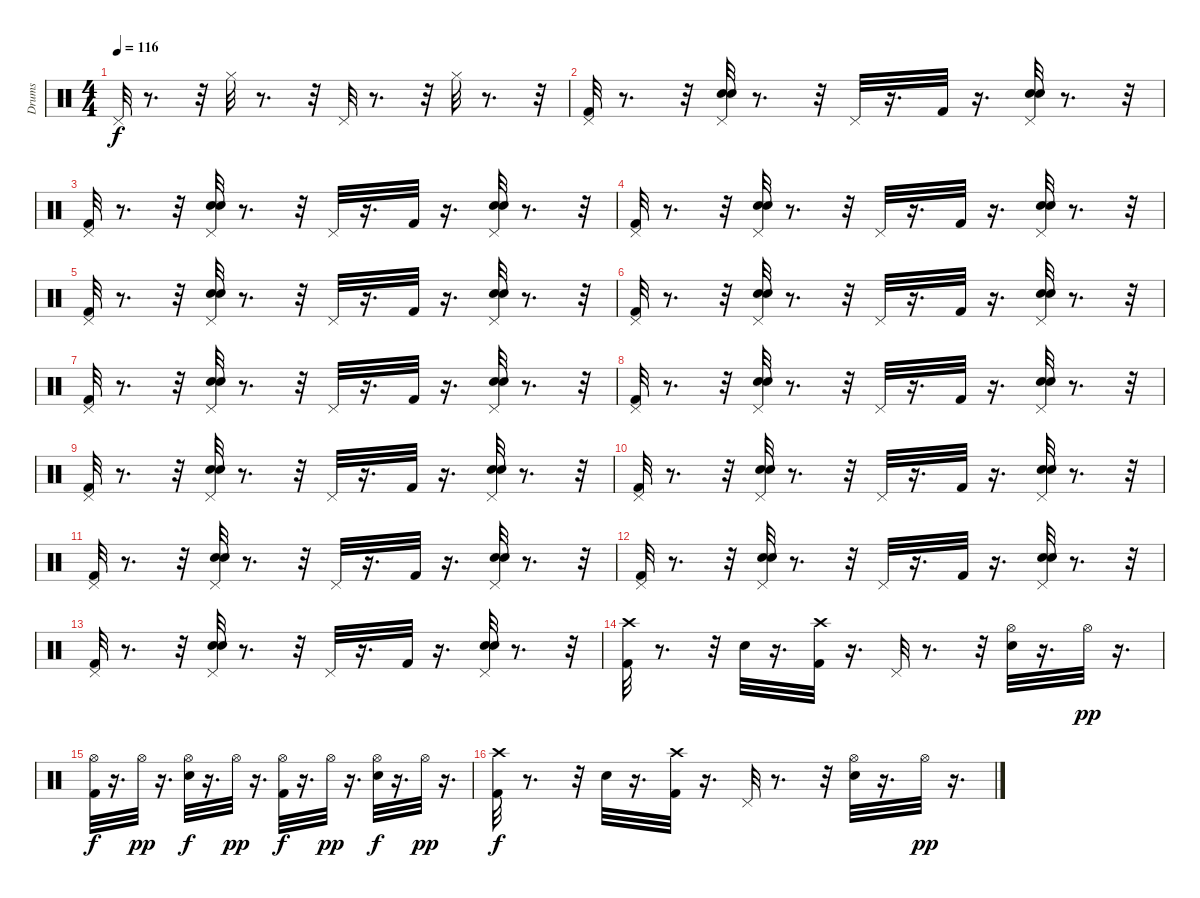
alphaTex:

\track ("Drums" "Drums") {instrument percussion}
\staff {score}
\articulation defaults
\ts (4 4)
\tempo 116
\clef neutral
\ks c "Pedal Hi-Hat (hit)".32{dy f}
r.8{d} r.32 "Hi-Hat (closed)".32 r.8{d} r.32 "Pedal Hi-Hat (hit)".32 r.8{d} r.32 "Hi-Hat (closed)".32 r.8{d} r.32 |
("Pedal Hi-Hat (hit)" "Kick (hit) 2").32 r.8{d} r.32 ("Pedal Hi-Hat (hit)" "Electric Snare (hit)" "Snare (hit) 2").32 r.8{d} r.32 "Pedal Hi-Hat (hit)".32 r.16{d} "Kick (hit) 2".32 r.16{d} ("Pedal Hi-Hat (hit)" "Electric Snare (hit)" "Snare (hit) 2").32 r.8{d} r.32 |
("Pedal Hi-Hat (hit)" "Kick (hit) 2").32 r.8{d} r.32 ("Pedal Hi-Hat (hit)" "Electric Snare (hit)" "Snare (hit) 2").32 r.8{d} r.32 "Pedal Hi-Hat (hit)".32 r.16{d} "Kick (hit) 2".32 r.16{d} ("Pedal Hi-Hat (hit)" "Electric Snare (hit)" "Snare (hit) 2").32 r.8{d} r.32 |
("Pedal Hi-Hat (hit)" "Kick (hit) 2").32 r.8{d} r.32 ("Pedal Hi-Hat (hit)" "Electric Snare (hit)" "Snare (hit) 2").32 r.8{d} r.32 "Pedal Hi-Hat (hit)".32 r.16{d} "Kick (hit) 2".32 r.16{d} ("Pedal Hi-Hat (hit)" "Electric Snare (hit)" "Snare (hit) 2").32 r.8{d} r.32 |
("Pedal Hi-Hat (hit)" "Kick (hit) 2").32 r.8{d} r.32 ("Pedal Hi-Hat (hit)" "Electric Snare (hit)" "Snare (hit) 2").32 r.8{d} r.32 "Pedal Hi-Hat (hit)".32 r.16{d} "Kick (hit) 2".32 r.16{d} ("Pedal Hi-Hat (hit)" "Electric Snare (hit)" "Snare (hit) 2").32 r.8{d} r.32 |
("Pedal Hi-Hat (hit)" "Kick (hit) 2").32 r.8{d} r.32 ("Pedal Hi-Hat (hit)" "Electric Snare (hit)" "Snare (hit) 2").32 r.8{d} r.32 "Pedal Hi-Hat (hit)".32 r.16{d} "Kick (hit) 2".32 r.16{d} ("Pedal Hi-Hat (hit)" "Electric Snare (hit)" "Snare (hit) 2").32 r.8{d} r.32 |
("Pedal Hi-Hat (hit)" "Kick (hit) 2").32 r.8{d} r.32 ("Pedal Hi-Hat (hit)" "Electric Snare (hit)" "Snare (hit) 2").32 r.8{d} r.32 "Pedal Hi-Hat (hit)".32 r.16{d} "Kick (hit) 2".32 r.16{d} ("Pedal Hi-Hat (hit)" "Electric Snare (hit)" "Snare (hit) 2").32 r.8{d} r.32 |
("Pedal Hi-Hat (hit)" "Kick (hit) 2").32 r.8{d} r.32 ("Pedal Hi-Hat (hit)" "Electric Snare (hit)" "Snare (hit) 2").32 r.8{d} r.32 "Pedal Hi-Hat (hit)".32 r.16{d} "Kick (hit) 2".32 r.16{d} ("Pedal Hi-Hat (hit)" "Electric Snare (hit)" "Snare (hit) 2").32 r.8{d} r.32 |
("Pedal Hi-Hat (hit)" "Kick (hit) 2").32 r.8{d} r.32 ("Pedal Hi-Hat (hit)" "Electric Snare (hit)" "Snare (hit) 2").32 r.8{d} r.32 "Pedal Hi-Hat (hit)".32 r.16{d} "Kick (hit) 2".32 r.16{d} ("Pedal Hi-Hat (hit)" "Electric Snare (hit)" "Snare (hit) 2").32 r.8{d} r.32 |
("Pedal Hi-Hat (hit)" "Kick (hit) 2").32 r.8{d} r.32 ("Pedal Hi-Hat (hit)" "Electric Snare (hit)" "Snare (hit) 2").32 r.8{d} r.32 "Pedal Hi-Hat (hit)".32 r.16{d} "Kick (hit) 2".32 r.16{d} ("Pedal Hi-Hat (hit)" "Electric Snare (hit)" "Snare (hit) 2").32 r.8{d} r.32 |
("Pedal Hi-Hat (hit)" "Kick (hit) 2").32 r.8{d} r.32 ("Pedal Hi-Hat (hit)" "Electric Snare (hit)" "Snare (hit) 2").32 r.8{d} r.32 "Pedal Hi-Hat (hit)".32 r.16{d} "Kick (hit) 2".32 r.16{d} ("Pedal Hi-Hat (hit)" "Electric Snare (hit)" "Snare (hit) 2").32 r.8{d} r.32 |
("Pedal Hi-Hat (hit)" "Kick (hit) 2").32 r.8{d} r.32 ("Pedal Hi-Hat (hit)" "Electric Snare (hit)" "Snare (hit) 2").32 r.8{d} r.32 "Pedal Hi-Hat (hit)".32 r.16{d} "Kick (hit) 2".32 r.16{d} ("Pedal Hi-Hat (hit)" "Electric Snare (hit)" "Snare (hit) 2").32 r.8{d} r.32 |
("Pedal Hi-Hat (hit)" "Kick (hit) 2").32 r.8{d} r.32 ("Pedal Hi-Hat (hit)" "Electric Snare (hit)" "Snare (hit) 2").32 r.8{d} r.32 "Pedal Hi-Hat (hit)".32 r.16{d} "Kick (hit) 2".32 r.16{d} ("Pedal Hi-Hat (hit)" "Electric Snare (hit)" "Snare (hit) 2").32 r.8{d} r.32 |
("Crash high (hit)" "Kick (hit) 2").32 r.8{d} r.32 "Electric Snare (hit)".32 r.16{d} ("Crash high (hit)" "Kick (hit) 2").32 r.16{d} "Pedal Hi-Hat (hit)".32 r.8{d} r.32 ("Electric Snare (hit)" "Hi-Hat (open)").32 r.16{d} "Hi-Hat (open)".32{dy pp} r.16{d} |
("Kick (hit) 2" "Hi-Hat (open)").32{dy f} r.16{d} "Hi-Hat (open)".32{dy pp} r.16{d} ("Electric Snare (hit)" "Hi-Hat (open)").32{dy f} r.16{d} "Hi-Hat (open)".32{dy pp} r.16{d} ("Kick (hit) 2" "Hi-Hat (open)").32{dy f} r.16{d} "Hi-Hat (open)".32{dy pp} r.16{d} ("Electric Snare (hit)" "Hi-Hat (open)").32{dy f} r.16{d} "Hi-Hat (open)".32{dy pp} r.16{d} |
("Crash high (hit)" "Kick (hit) 2").32{dy f} r.8{d} r.32 "Electric Snare (hit)".32 r.16{d} ("Crash high (hit)" "Kick (hit) 2").32 r.16{d} "Pedal Hi-Hat (hit)".32 r.8{d} r.32 ("Electric Snare (hit)" "Hi-Hat (open)").32 r.16{d} "Hi-Hat (open)".32{dy pp} r.16{d}
